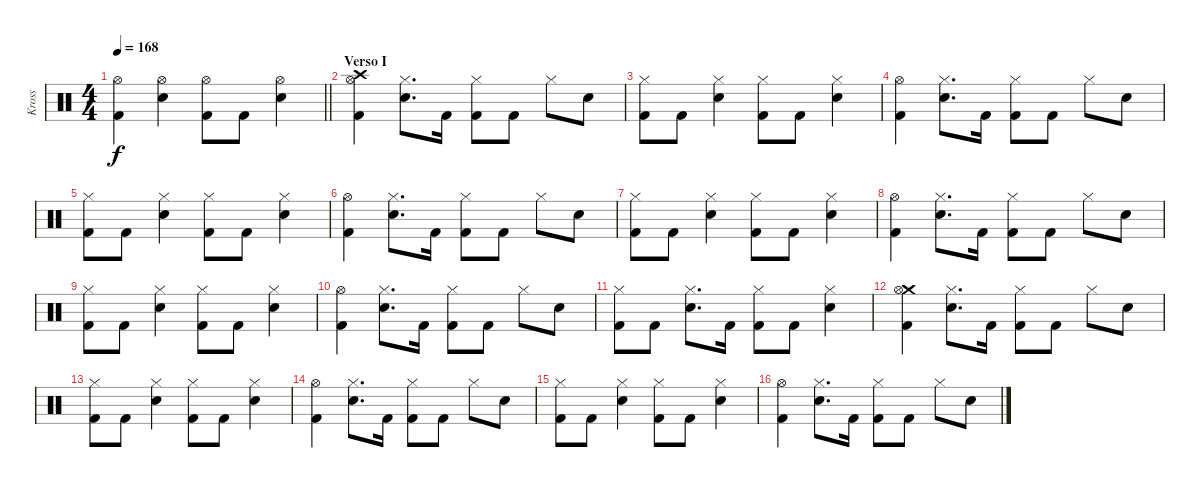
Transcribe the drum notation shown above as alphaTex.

\track ("Kross" "Kross") {instrument percussion}
\staff
\articulation defaults
\ts (4 4)
\tempo 168
\clef neutral
\barLineRight lightlight
\ks c
("Hi-Hat (open)" "Kick (hit) 2").4{dy f} ("Hi-Hat (open)" "Electric Snare (hit)").4 ("Hi-Hat (open)" "Kick (hit) 2").8 "Kick (hit) 2".8 ("Hi-Hat (open)" "Electric Snare (hit)").4 |
\section ("" "Verso I")
("Crash high (hit)" "Hi-Hat (open)" "Kick (hit) 2").4 ("Hi-Hat (closed)" "Electric Snare (hit)").8{d} "Kick (hit) 2".16 ("Hi-Hat (closed)" "Kick (hit) 2").8 "Kick (hit) 2".8 "Hi-Hat (closed)".8 "Electric Snare (hit)".8 |
("Hi-Hat (closed)" "Kick (hit) 2").8 "Kick (hit) 2".8 ("Hi-Hat (closed)" "Electric Snare (hit)").4 ("Hi-Hat (closed)" "Kick (hit) 2").8 "Kick (hit) 2".8 ("Hi-Hat (closed)" "Electric Snare (hit)").4 |
("Hi-Hat (open)" "Kick (hit) 2").4 ("Hi-Hat (closed)" "Electric Snare (hit)").8{d} "Kick (hit) 2".16 ("Hi-Hat (closed)" "Kick (hit) 2").8 "Kick (hit) 2".8 "Hi-Hat (closed)".8 "Electric Snare (hit)".8 |
("Hi-Hat (closed)" "Kick (hit) 2").8 "Kick (hit) 2".8 ("Hi-Hat (closed)" "Electric Snare (hit)").4 ("Hi-Hat (closed)" "Kick (hit) 2").8 "Kick (hit) 2".8 ("Hi-Hat (closed)" "Electric Snare (hit)").4 |
("Hi-Hat (open)" "Kick (hit) 2").4 ("Hi-Hat (closed)" "Electric Snare (hit)").8{d} "Kick (hit) 2".16 ("Hi-Hat (closed)" "Kick (hit) 2").8 "Kick (hit) 2".8 "Hi-Hat (closed)".8 "Electric Snare (hit)".8 |
("Hi-Hat (closed)" "Kick (hit) 2").8 "Kick (hit) 2".8 ("Hi-Hat (closed)" "Electric Snare (hit)").4 ("Hi-Hat (closed)" "Kick (hit) 2").8 "Kick (hit) 2".8 ("Hi-Hat (closed)" "Electric Snare (hit)").4 |
("Hi-Hat (open)" "Kick (hit) 2").4 ("Hi-Hat (closed)" "Electric Snare (hit)").8{d} "Kick (hit) 2".16 ("Hi-Hat (closed)" "Kick (hit) 2").8 "Kick (hit) 2".8 "Hi-Hat (closed)".8 "Electric Snare (hit)".8 |
("Hi-Hat (closed)" "Kick (hit) 2").8 "Kick (hit) 2".8 ("Hi-Hat (closed)" "Electric Snare (hit)").4 ("Hi-Hat (closed)" "Kick (hit) 2").8 "Kick (hit) 2".8 ("Hi-Hat (closed)" "Electric Snare (hit)").4 |
("Hi-Hat (open)" "Kick (hit) 2").4 ("Hi-Hat (closed)" "Electric Snare (hit)").8{d} "Kick (hit) 2".16 ("Hi-Hat (closed)" "Kick (hit) 2").8 "Kick (hit) 2".8 "Hi-Hat (closed)".8 "Electric Snare (hit)".8 |
("Hi-Hat (closed)" "Kick (hit) 2").8 "Kick (hit) 2".8 ("Hi-Hat (closed)" "Electric Snare (hit)").8{d} "Kick (hit) 2".16 ("Hi-Hat (closed)" "Kick (hit) 2").8 "Kick (hit) 2".8 ("Hi-Hat (closed)" "Electric Snare (hit)").4 |
("Crash medium (hit)" "Hi-Hat (open)" "Kick (hit) 2").4 ("Hi-Hat (closed)" "Electric Snare (hit)").8{d} "Kick (hit) 2".16 ("Hi-Hat (closed)" "Kick (hit) 2").8 "Kick (hit) 2".8 "Hi-Hat (closed)".8 "Electric Snare (hit)".8 |
("Hi-Hat (closed)" "Kick (hit) 2").8 "Kick (hit) 2".8 ("Hi-Hat (closed)" "Electric Snare (hit)").4 ("Hi-Hat (closed)" "Kick (hit) 2").8 "Kick (hit) 2".8 ("Hi-Hat (closed)" "Electric Snare (hit)").4 |
("Hi-Hat (open)" "Kick (hit) 2").4 ("Hi-Hat (closed)" "Electric Snare (hit)").8{d} "Kick (hit) 2".16 ("Hi-Hat (closed)" "Kick (hit) 2").8 "Kick (hit) 2".8 "Hi-Hat (closed)".8 "Electric Snare (hit)".8 |
("Hi-Hat (closed)" "Kick (hit) 2").8 "Kick (hit) 2".8 ("Hi-Hat (closed)" "Electric Snare (hit)").4 ("Hi-Hat (closed)" "Kick (hit) 2").8 "Kick (hit) 2".8 ("Hi-Hat (closed)" "Electric Snare (hit)").4 |
("Hi-Hat (open)" "Kick (hit) 2").4 ("Hi-Hat (closed)" "Electric Snare (hit)").8{d} "Kick (hit) 2".16 ("Hi-Hat (closed)" "Kick (hit) 2").8 "Kick (hit) 2".8 "Hi-Hat (closed)".8 "Electric Snare (hit)".8
